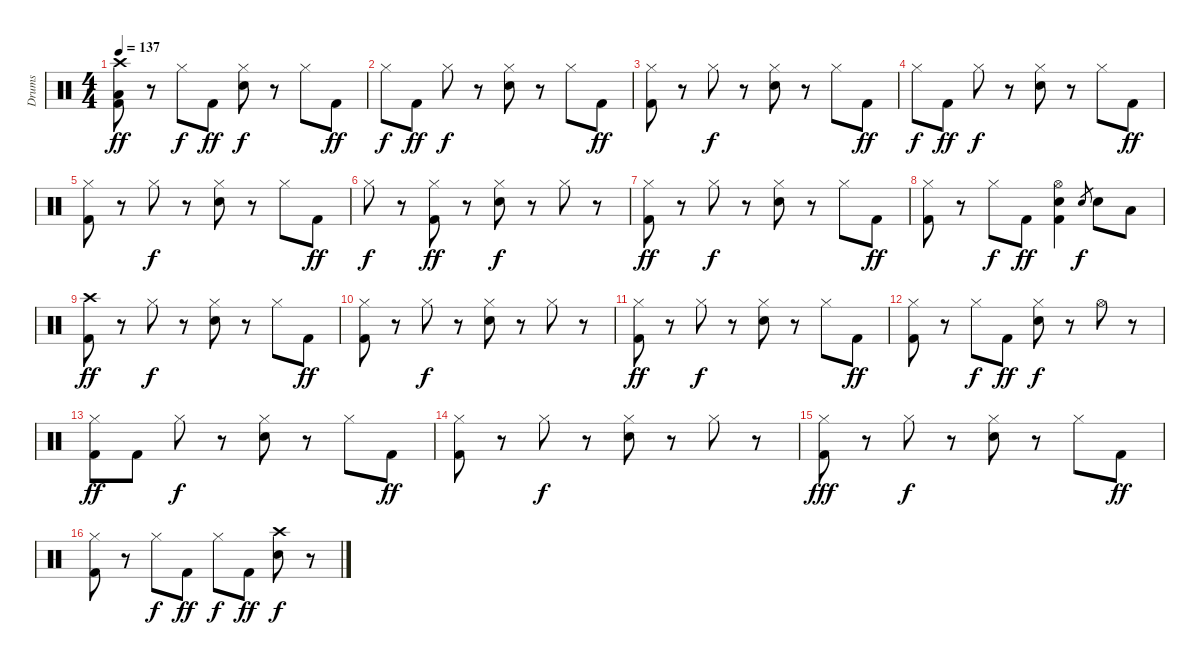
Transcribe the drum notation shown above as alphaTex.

\track ("Drums" "Drums") {instrument percussion}
\staff {score}
\articulation defaults
\ts (4 4)
\tempo 137
\clef neutral
\ks c
("Crash high (hit)" "Low Floor Tom (hit)" "Kick (hit) 2").8{dy ff} r.8 "Hi-Hat (closed)".8{dy f} "Kick (hit) 2".8{dy ff} ("Hi-Hat (closed)" "Electric Snare (hit)").8{dy f} r.8 "Hi-Hat (closed)".8 "Kick (hit) 2".8{dy ff} |
"Hi-Hat (closed)".8{dy f} "Kick (hit) 2".8{dy ff} "Hi-Hat (closed)".8{dy f} r.8 ("Hi-Hat (closed)" "Electric Snare (hit)").8 r.8 "Hi-Hat (closed)".8 "Kick (hit) 2".8{dy ff} |
("Hi-Hat (closed)" "Kick (hit) 2").8 r.8 "Hi-Hat (closed)".8{dy f} r.8 ("Hi-Hat (closed)" "Electric Snare (hit)").8 r.8 "Hi-Hat (closed)".8 "Kick (hit) 2".8{dy ff} |
"Hi-Hat (closed)".8{dy f} "Kick (hit) 2".8{dy ff} "Hi-Hat (closed)".8{dy f} r.8 ("Hi-Hat (closed)" "Electric Snare (hit)").8 r.8 "Hi-Hat (closed)".8 "Kick (hit) 2".8{dy ff} |
("Hi-Hat (closed)" "Kick (hit) 2").8 r.8 "Hi-Hat (closed)".8{dy f} r.8 ("Hi-Hat (closed)" "Electric Snare (hit)").8 r.8 "Hi-Hat (closed)".8 "Kick (hit) 2".8{dy ff} |
"Hi-Hat (closed)".8{dy f} r.8 ("Hi-Hat (closed)" "Kick (hit) 2").8{dy ff} r.8 ("Hi-Hat (closed)" "Electric Snare (hit)").8{dy f} r.8 "Hi-Hat (closed)".8 r.8 |
("Hi-Hat (closed)" "Kick (hit) 2").8{dy ff} r.8 "Hi-Hat (closed)".8{dy f} r.8 ("Hi-Hat (closed)" "Electric Snare (hit)").8 r.8 "Hi-Hat (closed)".8 "Kick (hit) 2".8{dy ff} |
("Hi-Hat (closed)" "Kick (hit) 2").8 r.8 "Hi-Hat (closed)".8{dy f} "Kick (hit) 2".8{dy ff} ("Hi-Hat (open)" "Electric Snare (hit)" "Kick (hit) 2").4 "Electric Snare (hit)".8{gr dy f} "Electric Snare (hit)".8 "Low Floor Tom (hit)".8 |
("Crash high (hit)" "Kick (hit) 2").8{dy ff} r.8 "Hi-Hat (closed)".8{dy f} r.8 ("Hi-Hat (closed)" "Electric Snare (hit)").8 r.8 "Hi-Hat (closed)".8 "Kick (hit) 2".8{dy ff} |
("Hi-Hat (closed)" "Kick (hit) 2").8 r.8 "Hi-Hat (closed)".8{dy f} r.8 ("Hi-Hat (closed)" "Electric Snare (hit)").8 r.8 "Hi-Hat (closed)".8 r.8 |
("Hi-Hat (closed)" "Kick (hit) 2").8{dy ff} r.8 "Hi-Hat (closed)".8{dy f} r.8 ("Hi-Hat (closed)" "Electric Snare (hit)").8 r.8 "Hi-Hat (closed)".8 "Kick (hit) 2".8{dy ff} |
("Hi-Hat (closed)" "Kick (hit) 2").8 r.8 "Hi-Hat (closed)".8{dy f} "Kick (hit) 2".8{dy ff} ("Hi-Hat (closed)" "Electric Snare (hit)").8{dy f} r.8 "Hi-Hat (open)".8 r.8 |
("Hi-Hat (closed)" "Kick (hit) 2").8{dy ff} "Kick (hit) 2".8 "Hi-Hat (closed)".8{dy f} r.8 ("Hi-Hat (closed)" "Electric Snare (hit)").8 r.8 "Hi-Hat (closed)".8 "Kick (hit) 2".8{dy ff} |
("Hi-Hat (closed)" "Kick (hit) 2").8 r.8 "Hi-Hat (closed)".8{dy f} r.8 ("Hi-Hat (closed)" "Electric Snare (hit)").8 r.8 "Hi-Hat (closed)".8 r.8 |
("Hi-Hat (closed)" "Kick (hit) 2").8{dy fff} r.8 "Hi-Hat (closed)".8{dy f} r.8 ("Hi-Hat (closed)" "Electric Snare (hit)").8 r.8 "Hi-Hat (closed)".8 "Kick (hit) 2".8{dy ff} |
("Hi-Hat (closed)" "Kick (hit) 2").8 r.8 "Hi-Hat (closed)".8{dy f} "Kick (hit) 2".8{dy ff} "Hi-Hat (closed)".8{dy f} "Kick (hit) 2".8{dy ff} ("Crash high (hit)" "Electric Snare (hit)").8{dy f} r.8
